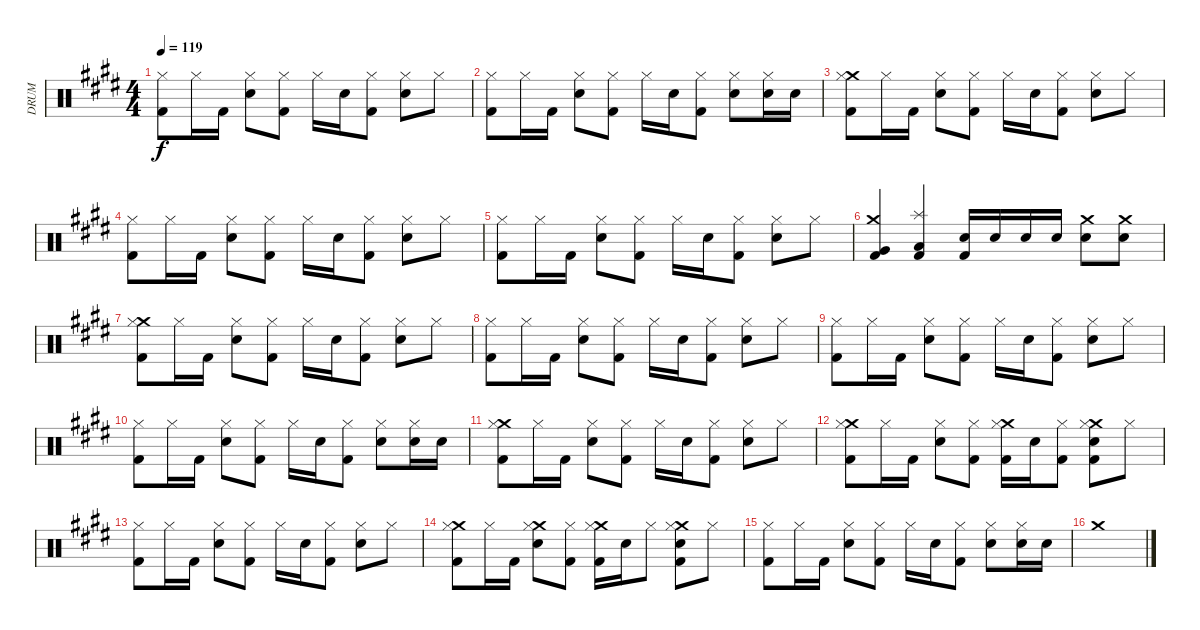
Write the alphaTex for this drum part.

\track ("DRUM" "DRUM") {instrument percussion}
\staff {score}
\articulation defaults
\ts (4 4)
\tempo 119
\clef neutral
\ks e
("Hi-Hat (closed)" "Kick (hit) 2").8{dy f} "Hi-Hat (closed)".16 "Kick (hit) 2".16 ("Hi-Hat (closed)" "Snare (hit) 2").8 ("Hi-Hat (closed)" "Kick (hit) 2").8 "Hi-Hat (closed)".16 "Snare (hit) 2".16 ("Hi-Hat (closed)" "Kick (hit) 2").8 ("Hi-Hat (closed)" "Snare (hit) 2").8 "Hi-Hat (closed)".8 |
("Hi-Hat (closed)" "Kick (hit) 2").8 "Hi-Hat (closed)".16 "Kick (hit) 2".16 ("Hi-Hat (closed)" "Snare (hit) 2").8 ("Hi-Hat (closed)" "Kick (hit) 2").8 "Hi-Hat (closed)".16 "Snare (hit) 2".16 ("Hi-Hat (closed)" "Kick (hit) 2").8 ("Hi-Hat (closed)" "Snare (hit) 2").8 ("Hi-Hat (closed)" "Snare (hit) 2").16 "Snare (hit) 2".16 |
("Crash medium (hit)" "Hi-Hat (closed)" "Kick (hit) 2").8 "Hi-Hat (closed)".16 "Kick (hit) 2".16 ("Hi-Hat (closed)" "Snare (hit) 2").8 ("Hi-Hat (closed)" "Kick (hit) 2").8 "Hi-Hat (closed)".16 "Snare (hit) 2".16 ("Hi-Hat (closed)" "Kick (hit) 2").8 ("Hi-Hat (closed)" "Snare (hit) 2").8 "Hi-Hat (closed)".8 |
("Hi-Hat (closed)" "Kick (hit) 2").8 "Hi-Hat (closed)".16 "Kick (hit) 2".16 ("Hi-Hat (closed)" "Snare (hit) 2").8 ("Hi-Hat (closed)" "Kick (hit) 2").8 "Hi-Hat (closed)".16 "Snare (hit) 2".16 ("Hi-Hat (closed)" "Kick (hit) 2").8 ("Hi-Hat (closed)" "Snare (hit) 2").8 "Hi-Hat (closed)".8 |
("Hi-Hat (closed)" "Kick (hit) 2").8 "Hi-Hat (closed)".16 "Kick (hit) 2".16 ("Hi-Hat (closed)" "Snare (hit) 2").8 ("Hi-Hat (closed)" "Kick (hit) 2").8 "Hi-Hat (closed)".16 "Snare (hit) 2".16 ("Hi-Hat (closed)" "Kick (hit) 2").8 ("Hi-Hat (closed)" "Snare (hit) 2").8 "Hi-Hat (closed)".8 |
("Crash medium (hit)" "Very Low Tom (hit)" "Kick (hit) 2").4 ("Splash (hit)" "Low Floor Tom (hit)" "Kick (hit) 2").4 ("Snare (hit) 2" "Kick (hit) 2").16 "Snare (hit) 2".16 "Snare (hit) 2".16 "Snare (hit) 2".16 ("Crash medium (hit)" "Snare (hit) 2").8 ("Crash medium (hit)" "Snare (hit) 2").8 |
("Crash medium (hit)" "Hi-Hat (closed)" "Kick (hit) 2").8 "Hi-Hat (closed)".16 "Kick (hit) 2".16 ("Hi-Hat (closed)" "Snare (hit) 2").8 ("Hi-Hat (closed)" "Kick (hit) 2").8 "Hi-Hat (closed)".16 "Snare (hit) 2".16 ("Hi-Hat (closed)" "Kick (hit) 2").8 ("Hi-Hat (closed)" "Snare (hit) 2").8 "Hi-Hat (closed)".8 |
("Hi-Hat (closed)" "Kick (hit) 2").8 "Hi-Hat (closed)".16 "Kick (hit) 2".16 ("Hi-Hat (closed)" "Snare (hit) 2").8 ("Hi-Hat (closed)" "Kick (hit) 2").8 "Hi-Hat (closed)".16 "Snare (hit) 2".16 ("Hi-Hat (closed)" "Kick (hit) 2").8 ("Hi-Hat (closed)" "Snare (hit) 2").8 "Hi-Hat (closed)".8 |
("Hi-Hat (closed)" "Kick (hit) 2").8 "Hi-Hat (closed)".16 "Kick (hit) 2".16 ("Hi-Hat (closed)" "Snare (hit) 2").8 ("Hi-Hat (closed)" "Kick (hit) 2").8 "Hi-Hat (closed)".16 "Snare (hit) 2".16 ("Hi-Hat (closed)" "Kick (hit) 2").8 ("Hi-Hat (closed)" "Snare (hit) 2").8 "Hi-Hat (closed)".8 |
("Hi-Hat (closed)" "Kick (hit) 2").8 "Hi-Hat (closed)".16 "Kick (hit) 2".16 ("Hi-Hat (closed)" "Snare (hit) 2").8 ("Hi-Hat (closed)" "Kick (hit) 2").8 "Hi-Hat (closed)".16 "Snare (hit) 2".16 ("Hi-Hat (closed)" "Kick (hit) 2").8 ("Hi-Hat (closed)" "Snare (hit) 2").8 ("Hi-Hat (closed)" "Snare (hit) 2").16 "Snare (hit) 2".16 |
("Crash medium (hit)" "Hi-Hat (closed)" "Kick (hit) 2").8 "Hi-Hat (closed)".16 "Kick (hit) 2".16 ("Hi-Hat (closed)" "Snare (hit) 2").8 ("Hi-Hat (closed)" "Kick (hit) 2").8 "Hi-Hat (closed)".16 "Snare (hit) 2".16 ("Hi-Hat (closed)" "Kick (hit) 2").8 ("Hi-Hat (closed)" "Snare (hit) 2").8 "Hi-Hat (closed)".8 |
("Crash medium (hit)" "Hi-Hat (closed)" "Kick (hit) 2").8 "Hi-Hat (closed)".16 "Kick (hit) 2".16 ("Hi-Hat (closed)" "Snare (hit) 2").8 ("Hi-Hat (closed)" "Kick (hit) 2").8 ("Crash medium (hit)" "Hi-Hat (closed)" "Kick (hit) 2").16 "Snare (hit) 2".16 ("Hi-Hat (closed)" "Kick (hit) 2").8 ("Crash medium (hit)" "Hi-Hat (closed)" "Snare (hit) 2" "Kick (hit) 2").8 "Hi-Hat (closed)".8 |
("Hi-Hat (closed)" "Kick (hit) 2").8 "Hi-Hat (closed)".16 "Kick (hit) 2".16 ("Hi-Hat (closed)" "Snare (hit) 2").8 ("Hi-Hat (closed)" "Kick (hit) 2").8 "Hi-Hat (closed)".16 "Snare (hit) 2".16 ("Hi-Hat (closed)" "Kick (hit) 2").8 ("Hi-Hat (closed)" "Snare (hit) 2").8 "Hi-Hat (closed)".8 |
("Crash medium (hit)" "Hi-Hat (closed)" "Kick (hit) 2").8 "Hi-Hat (closed)".16 "Kick (hit) 2".16 ("Crash medium (hit)" "Hi-Hat (closed)" "Snare (hit) 2").8 ("Hi-Hat (closed)" "Kick (hit) 2").8 ("Crash medium (hit)" "Hi-Hat (closed)" "Kick (hit) 2").16 "Snare (hit) 2".16 "Hi-Hat (closed)".8 ("Crash medium (hit)" "Hi-Hat (closed)" "Snare (hit) 2" "Kick (hit) 2").8 "Hi-Hat (closed)".8 |
("Hi-Hat (closed)" "Kick (hit) 2").8 "Hi-Hat (closed)".16 "Kick (hit) 2".16 ("Hi-Hat (closed)" "Snare (hit) 2").8 ("Hi-Hat (closed)" "Kick (hit) 2").8 "Hi-Hat (closed)".16 "Snare (hit) 2".16 ("Hi-Hat (closed)" "Kick (hit) 2").8 ("Hi-Hat (closed)" "Snare (hit) 2").8 ("Hi-Hat (closed)" "Snare (hit) 2").16 "Snare (hit) 2".16 |
"Crash medium (hit)".1
